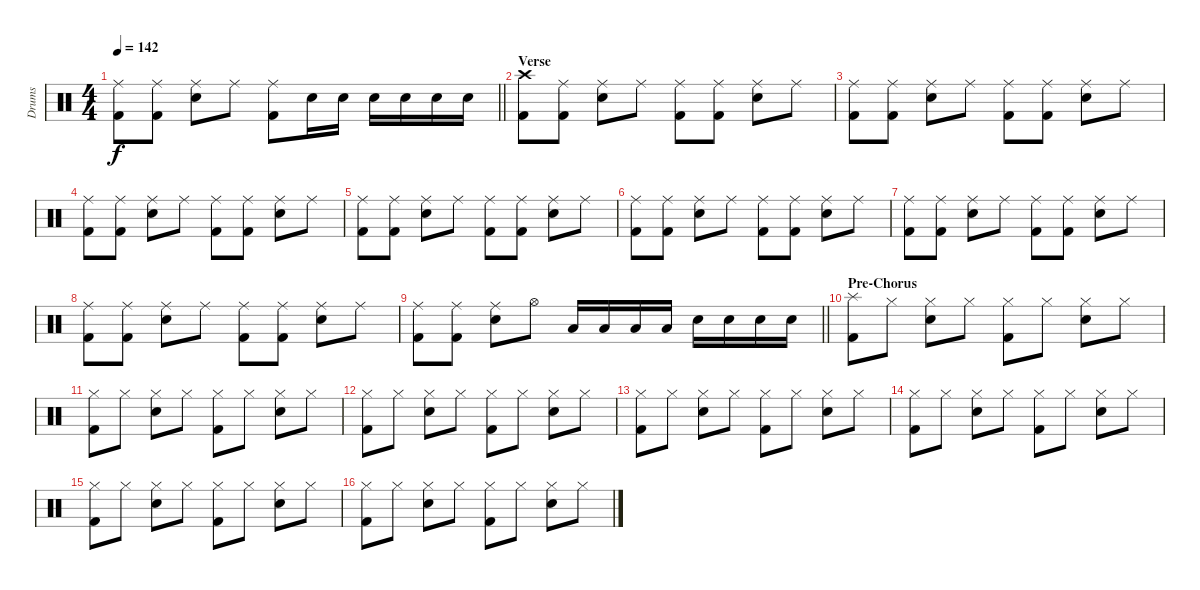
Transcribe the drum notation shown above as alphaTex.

\track ("Drums" "Drums") {instrument percussion}
\staff {score}
\articulation defaults
\ts (4 4)
\tempo 142
\clef neutral
\barLineRight lightlight
\ks c
("Ride (middle)" "Kick (hit) 2").8{dy f} ("Ride (middle)" "Kick (hit) 2").8 ("Ride (middle)" "Electric Snare (hit)").8 "Ride (middle)".8 ("Ride (middle)" "Kick (hit) 2").8 "Electric Snare (hit)".16 "Electric Snare (hit)".16 "Electric Snare (hit)".16 "Electric Snare (hit)".16 "Electric Snare (hit)".16 "Electric Snare (hit)".16 |
\section ("" "Verse")
("Crash high (hit)" "Kick (hit) 2").8 ("Ride (middle)" "Kick (hit) 2").8 ("Ride (middle)" "Electric Snare (hit)").8 "Ride (middle)".8 ("Ride (middle)" "Kick (hit) 2").8 ("Ride (middle)" "Kick (hit) 2").8 ("Ride (middle)" "Electric Snare (hit)").8 "Ride (middle)".8 |
("Ride (middle)" "Kick (hit) 2").8 ("Ride (middle)" "Kick (hit) 2").8 ("Ride (middle)" "Electric Snare (hit)").8 "Ride (middle)".8 ("Ride (middle)" "Kick (hit) 2").8 ("Ride (middle)" "Kick (hit) 2").8 ("Ride (middle)" "Electric Snare (hit)").8 "Ride (middle)".8 |
("Ride (middle)" "Kick (hit) 2").8 ("Ride (middle)" "Kick (hit) 2").8 ("Ride (middle)" "Electric Snare (hit)").8 "Ride (middle)".8 ("Ride (middle)" "Kick (hit) 2").8 ("Ride (middle)" "Kick (hit) 2").8 ("Ride (middle)" "Electric Snare (hit)").8 "Ride (middle)".8 |
("Ride (middle)" "Kick (hit) 2").8 ("Ride (middle)" "Kick (hit) 2").8 ("Ride (middle)" "Electric Snare (hit)").8 "Ride (middle)".8 ("Ride (middle)" "Kick (hit) 2").8 ("Ride (middle)" "Kick (hit) 2").8 ("Ride (middle)" "Electric Snare (hit)").8 "Ride (middle)".8 |
("Ride (middle)" "Kick (hit) 2").8 ("Ride (middle)" "Kick (hit) 2").8 ("Ride (middle)" "Electric Snare (hit)").8 "Ride (middle)".8 ("Ride (middle)" "Kick (hit) 2").8 ("Ride (middle)" "Kick (hit) 2").8 ("Ride (middle)" "Electric Snare (hit)").8 "Ride (middle)".8 |
("Ride (middle)" "Kick (hit) 2").8 ("Ride (middle)" "Kick (hit) 2").8 ("Ride (middle)" "Electric Snare (hit)").8 "Ride (middle)".8 ("Ride (middle)" "Kick (hit) 2").8 ("Ride (middle)" "Kick (hit) 2").8 ("Ride (middle)" "Electric Snare (hit)").8 "Ride (middle)".8 |
("Ride (middle)" "Kick (hit) 2").8 ("Ride (middle)" "Kick (hit) 2").8 ("Ride (middle)" "Electric Snare (hit)").8 "Ride (middle)".8 ("Ride (middle)" "Kick (hit) 2").8 ("Ride (middle)" "Kick (hit) 2").8 ("Ride (middle)" "Electric Snare (hit)").8 "Ride (middle)".8 |
\barLineRight lightlight
("Ride (middle)" "Kick (hit) 2").8 ("Ride (middle)" "Kick (hit) 2").8 ("Ride (middle)" "Electric Snare (hit)").8 "Hi-Hat (open)".8 "Low Tom (hit)".16 "Low Tom (hit)".16 "Low Tom (hit)".16 "Low Tom (hit)".16 "Electric Snare (hit)".16 "Electric Snare (hit)".16 "Electric Snare (hit)".16 "Electric Snare (hit)".16 |
\section ("" "Pre-Chorus")
("Splash (hit)" "Kick (hit) 2").8 "Hi-Hat (closed)".8 ("Hi-Hat (closed)" "Electric Snare (hit)").8 "Hi-Hat (closed)".8 ("Hi-Hat (closed)" "Kick (hit) 2").8 "Hi-Hat (closed)".8 ("Hi-Hat (closed)" "Electric Snare (hit)").8 "Hi-Hat (closed)".8 |
("Hi-Hat (closed)" "Kick (hit) 2").8 "Hi-Hat (closed)".8 ("Hi-Hat (closed)" "Electric Snare (hit)").8 "Hi-Hat (closed)".8 ("Hi-Hat (closed)" "Kick (hit) 2").8 "Hi-Hat (closed)".8 ("Hi-Hat (closed)" "Electric Snare (hit)").8 "Hi-Hat (closed)".8 |
("Hi-Hat (closed)" "Kick (hit) 2").8 "Hi-Hat (closed)".8 ("Hi-Hat (closed)" "Electric Snare (hit)").8 "Hi-Hat (closed)".8 ("Hi-Hat (closed)" "Kick (hit) 2").8 "Hi-Hat (closed)".8 ("Hi-Hat (closed)" "Electric Snare (hit)").8 "Hi-Hat (closed)".8 |
("Hi-Hat (closed)" "Kick (hit) 2").8 "Hi-Hat (closed)".8 ("Hi-Hat (closed)" "Electric Snare (hit)").8 "Hi-Hat (closed)".8 ("Hi-Hat (closed)" "Kick (hit) 2").8 "Hi-Hat (closed)".8 ("Hi-Hat (closed)" "Electric Snare (hit)").8 "Hi-Hat (closed)".8 |
("Hi-Hat (closed)" "Kick (hit) 2").8 "Hi-Hat (closed)".8 ("Hi-Hat (closed)" "Electric Snare (hit)").8 "Hi-Hat (closed)".8 ("Hi-Hat (closed)" "Kick (hit) 2").8 "Hi-Hat (closed)".8 ("Hi-Hat (closed)" "Electric Snare (hit)").8 "Hi-Hat (closed)".8 |
("Hi-Hat (closed)" "Kick (hit) 2").8 "Hi-Hat (closed)".8 ("Hi-Hat (closed)" "Electric Snare (hit)").8 "Hi-Hat (closed)".8 ("Hi-Hat (closed)" "Kick (hit) 2").8 "Hi-Hat (closed)".8 ("Hi-Hat (closed)" "Electric Snare (hit)").8 "Hi-Hat (closed)".8 |
("Hi-Hat (closed)" "Kick (hit) 2").8 "Hi-Hat (closed)".8 ("Hi-Hat (closed)" "Electric Snare (hit)").8 "Hi-Hat (closed)".8 ("Hi-Hat (closed)" "Kick (hit) 2").8 "Hi-Hat (closed)".8 ("Hi-Hat (closed)" "Electric Snare (hit)").8 "Hi-Hat (closed)".8
